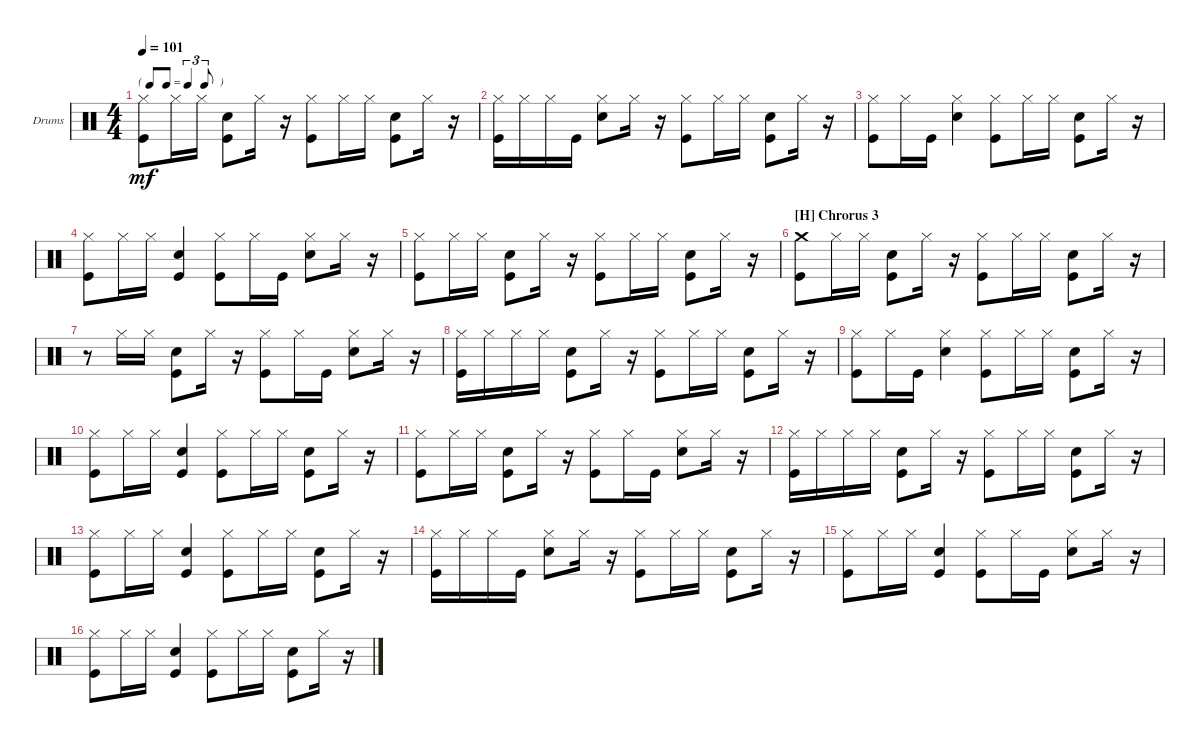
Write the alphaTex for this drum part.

\bracketExtendMode groupsimilarinstruments
\firstSystemTrackNameOrientation horizontal
\otherSystemsTrackNameOrientation horizontal
\track ("Charlie Watts" "Drums") {instrument percussion}
\staff {score}
\articulation defaults
\ts (4 4)
\tf triplet8th
\tempo 101
\clef neutral
\scale
0.333333
\ks c
("Kick (hit)" "Hi-Hat (closed)").8{dy mf} "Hi-Hat (closed)".16 "Hi-Hat (closed)".16 ("Kick (hit)" "Snare (hit) 2").8 "Hi-Hat (closed)".16 r.16 ("Hi-Hat (closed)" "Kick (hit)").8 "Hi-Hat (closed)".16 "Hi-Hat (closed)".16 ("Kick (hit)" "Snare (hit) 2").8 "Hi-Hat (closed)".16 r.16 |
\scale
0.333333 ("Hi-Hat (closed)" "Kick (hit)").16 "Hi-Hat (closed)".16 "Hi-Hat (closed)".16 "Kick (hit)".16 ("Hi-Hat (closed)" "Snare (hit) 2").8 "Hi-Hat (closed)".16 r.16 ("Hi-Hat (closed)" "Kick (hit)").8 "Hi-Hat (closed)".16 "Hi-Hat (closed)".16 ("Kick (hit)" "Snare (hit) 2").8 "Hi-Hat (closed)".16 r.16 |
\scale
0.333333 ("Hi-Hat (closed)" "Kick (hit)").8 "Hi-Hat (closed)".16 "Kick (hit)".16 ("Hi-Hat (closed)" "Snare (hit) 2").4 ("Hi-Hat (closed)" "Kick (hit)").8 "Hi-Hat (closed)".16 "Hi-Hat (closed)".16 ("Kick (hit)" "Snare (hit) 2").8 "Hi-Hat (closed)".16 r.16 |
\scale
0.333333 ("Hi-Hat (closed)" "Kick (hit)").8 "Hi-Hat (closed)".16 "Hi-Hat (closed)".16 ("Kick (hit)" "Snare (hit) 2").4 ("Kick (hit)" "Hi-Hat (closed)").8 "Hi-Hat (closed)".16 "Kick (hit)".16 ("Hi-Hat (closed)" "Snare (hit) 2").8 "Hi-Hat (closed)".16 r.16 |
\scale
0.333333 ("Kick (hit)" "Hi-Hat (closed)").8 "Hi-Hat (closed)".16 "Hi-Hat (closed)".16 ("Kick (hit)" "Snare (hit) 2").8 "Hi-Hat (closed)".16 r.16 ("Hi-Hat (closed)" "Kick (hit)").8 "Hi-Hat (closed)".16 "Hi-Hat (closed)".16 ("Kick (hit)" "Snare (hit) 2").8 "Hi-Hat (closed)".16 r.16 |
\section ("H" "Chrorus 3")
\scale
0.333333 ("Kick (hit)" "Crash medium (hit)").8 "Hi-Hat (closed)".16 "Hi-Hat (closed)".16 ("Kick (hit)" "Snare (hit) 2").8 "Hi-Hat (closed)".16 r.16 ("Kick (hit)" "Hi-Hat (closed)").8 "Hi-Hat (closed)".16 "Hi-Hat (closed)".16 ("Kick (hit)" "Snare (hit) 2").8 "Hi-Hat (closed)".16 r.16 |
\scale
0.333333 r.8 "Hi-Hat (closed)".16 "Hi-Hat (closed)".16 ("Kick (hit)" "Snare (hit) 2").8 "Hi-Hat (closed)".16 r.16 ("Kick (hit)" "Hi-Hat (closed)").8 "Hi-Hat (closed)".16 "Kick (hit)".16 ("Hi-Hat (closed)" "Snare (hit) 2").8 "Hi-Hat (closed)".16 r.16 |
\scale
0.333333 ("Kick (hit)" "Hi-Hat (closed)").16 "Hi-Hat (closed)".16 "Hi-Hat (closed)".16 "Hi-Hat (closed)".16 ("Kick (hit)" "Snare (hit) 2").8 "Hi-Hat (closed)".16 r.16 ("Kick (hit)" "Hi-Hat (closed)").8 "Hi-Hat (closed)".16 "Hi-Hat (closed)".16 ("Kick (hit)" "Snare (hit) 2").8 "Hi-Hat (closed)".16 r.16 |
\scale
0.333333 ("Hi-Hat (closed)" "Kick (hit)").8 "Hi-Hat (closed)".16 "Kick (hit)".16 ("Hi-Hat (closed)" "Snare (hit) 2").4 ("Kick (hit)" "Hi-Hat (closed)").8 "Hi-Hat (closed)".16 "Hi-Hat (closed)".16 ("Kick (hit)" "Snare (hit) 2").8 "Hi-Hat (closed)".16 r.16 |
\scale
0.333333 ("Kick (hit)" "Hi-Hat (closed)").8 "Hi-Hat (closed)".16 "Hi-Hat (closed)".16 ("Kick (hit)" "Snare (hit) 2").4 ("Kick (hit)" "Hi-Hat (closed)").8 "Hi-Hat (closed)".16 "Hi-Hat (closed)".16 ("Kick (hit)" "Snare (hit) 2").8 "Hi-Hat (closed)".16 r.16 |
\scale
0.333333 ("Kick (hit)" "Hi-Hat (closed)").8 "Hi-Hat (closed)".16 "Hi-Hat (closed)".16 ("Kick (hit)" "Snare (hit) 2").8 "Hi-Hat (closed)".16 r.16 ("Hi-Hat (closed)" "Kick (hit)").8 "Hi-Hat (closed)".16 "Kick (hit)".16 ("Hi-Hat (closed)" "Snare (hit) 2").8 "Hi-Hat (closed)".16 r.16 |
\scale
0.333333 ("Kick (hit)" "Hi-Hat (closed)").16 "Hi-Hat (closed)".16 "Hi-Hat (closed)".16 "Hi-Hat (closed)".16 ("Kick (hit)" "Snare (hit) 2").8 "Hi-Hat (closed)".16 r.16 ("Kick (hit)" "Hi-Hat (closed)").8 "Hi-Hat (closed)".16 "Hi-Hat (closed)".16 ("Kick (hit)" "Snare (hit) 2").8 "Hi-Hat (closed)".16 r.16 |
\scale
0.333333 ("Kick (hit)" "Hi-Hat (closed)").8 "Hi-Hat (closed)".16 "Hi-Hat (closed)".16 ("Kick (hit)" "Snare (hit) 2").4 ("Kick (hit)" "Hi-Hat (closed)").8 "Hi-Hat (closed)".16 "Hi-Hat (closed)".16 ("Kick (hit)" "Snare (hit) 2").8 "Hi-Hat (closed)".16 r.16 |
\scale
0.333333 ("Kick (hit)" "Hi-Hat (closed)").16 "Hi-Hat (closed)".16 "Hi-Hat (closed)".16 "Kick (hit)".16 ("Hi-Hat (closed)" "Snare (hit) 2").8 "Hi-Hat (closed)".16 r.16 ("Hi-Hat (closed)" "Kick (hit)").8 "Hi-Hat (closed)".16 "Hi-Hat (closed)".16 ("Kick (hit)" "Snare (hit) 2").8 "Hi-Hat (closed)".16 r.16 |
\scale
0.333333 ("Kick (hit)" "Hi-Hat (closed)").8 "Hi-Hat (closed)".16 "Hi-Hat (closed)".16 ("Kick (hit)" "Snare (hit) 2").4 ("Kick (hit)" "Hi-Hat (closed)").8 "Hi-Hat (closed)".16 "Kick (hit)".16 ("Hi-Hat (closed)" "Snare (hit) 2").8 "Hi-Hat (closed)".16 r.16 |
\scale
0.333333 ("Hi-Hat (closed)" "Kick (hit)").8 "Hi-Hat (closed)".16 "Hi-Hat (closed)".16 ("Kick (hit)" "Snare (hit) 2").4 ("Hi-Hat (closed)" "Kick (hit)").8 "Hi-Hat (closed)".16 "Hi-Hat (closed)".16 ("Kick (hit)" "Snare (hit) 2").8 "Hi-Hat (closed)".16 r.16
